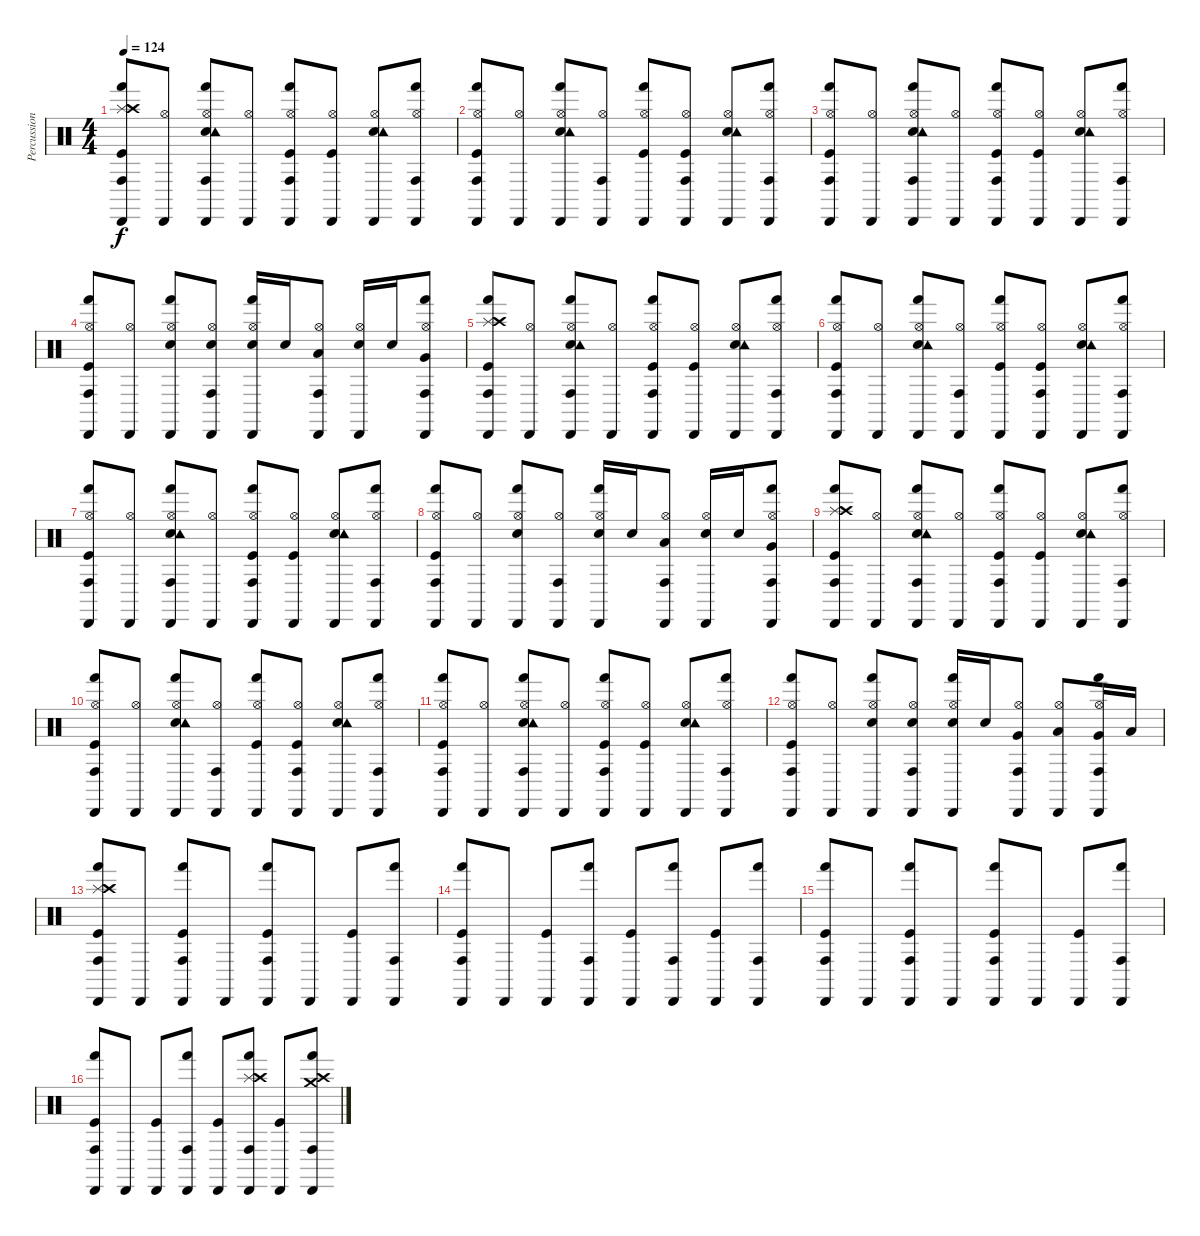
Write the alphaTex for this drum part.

\track ("Percussion" "Percussion") {instrument percussion}
\staff {score}
\articulation defaults
\ts (4 4)
\tempo 124
\clef neutral
\ks c
("Cabasa (hit)" "Kick (hit)" "Hand (hit)" "Conga high (hit)" "Splash (hit)" "Crash high (hit)").8{dy f} ("Cabasa (hit)" "Hi-Hat (open)").8 ("Cabasa (hit)" "Electric Snare (hit)" "Hand (hit)" "Conga high (hit)" "Tambourine (hit)" "Hi-Hat (open)").8 ("Cabasa (hit)" "Hi-Hat (open)").8 ("Cabasa (hit)" "Kick (hit)" "Hand (hit)" "Conga high (hit)" "Hi-Hat (open)").8 ("Cabasa (hit)" "Kick (hit)" "Hi-Hat (open)").8 ("Cabasa (hit)" "Electric Snare (hit)" "Tambourine (hit)" "Hi-Hat (open)").8 ("Cabasa (hit)" "Hand (hit)" "Conga high (hit)" "Hi-Hat (open)").8 |
("Cabasa (hit)" "Kick (hit)" "Hand (hit)" "Conga high (hit)" "Hi-Hat (open)").8 ("Cabasa (hit)" "Hi-Hat (open)").8 ("Cabasa (hit)" "Electric Snare (hit)" "Hand (hit)" "Tambourine (hit)" "Hi-Hat (open)").8 ("Cabasa (hit)" "Conga high (hit)" "Hi-Hat (open)").8 ("Cabasa (hit)" "Kick (hit)" "Hand (hit)" "Hi-Hat (open)").8 ("Cabasa (hit)" "Kick (hit)" "Conga high (hit)" "Hi-Hat (open)").8 ("Cabasa (hit)" "Electric Snare (hit)" "Tambourine (hit)" "Hi-Hat (open)").8 ("Cabasa (hit)" "Hand (hit)" "Conga high (hit)" "Hi-Hat (open)").8 |
("Cabasa (hit)" "Kick (hit)" "Hand (hit)" "Conga high (hit)" "Hi-Hat (open)").8 ("Cabasa (hit)" "Hi-Hat (open)").8 ("Cabasa (hit)" "Electric Snare (hit)" "Hand (hit)" "Conga high (hit)" "Tambourine (hit)" "Hi-Hat (open)").8 ("Cabasa (hit)" "Hi-Hat (open)").8 ("Cabasa (hit)" "Kick (hit)" "Hand (hit)" "Conga high (hit)" "Hi-Hat (open)").8 ("Cabasa (hit)" "Kick (hit)" "Hi-Hat (open)").8 ("Cabasa (hit)" "Electric Snare (hit)" "Tambourine (hit)" "Hi-Hat (open)").8 ("Cabasa (hit)" "Hand (hit)" "Conga high (hit)" "Hi-Hat (open)").8 |
("Cabasa (hit)" "Kick (hit)" "Hand (hit)" "Conga high (hit)" "Hi-Hat (open)").8 ("Cabasa (hit)" "Hi-Hat (open)").8 ("Cabasa (hit)" "Electric Snare (hit)" "Hand (hit)" "Hi-Hat (open)").8 ("Cabasa (hit)" "Electric Snare (hit)" "Conga high (hit)" "Hi-Hat (open)").8 ("Cabasa (hit)" "Snare (hit) 2" "Hand (hit)" "Hi-Hat (open)").16 "Snare (hit) 2".16 ("Cabasa (hit)" "Low Floor Tom (hit)" "Conga high (hit)" "Hi-Hat (open)").8 ("Cabasa (hit)" "Snare (hit) 2" "Hi-Hat (open)").16 "Snare (hit) 2".16 ("Cabasa (hit)" "Very Low Tom (hit)" "Hand (hit)" "Conga high (hit)" "Hi-Hat (open)").8 |
("Cabasa (hit)" "Kick (hit)" "Hand (hit)" "Conga high (hit)" "Splash (hit)" "Crash high (hit)").8 ("Cabasa (hit)" "Hi-Hat (open)").8 ("Cabasa (hit)" "Electric Snare (hit)" "Hand (hit)" "Conga high (hit)" "Tambourine (hit)" "Hi-Hat (open)").8 ("Cabasa (hit)" "Hi-Hat (open)").8 ("Cabasa (hit)" "Kick (hit)" "Hand (hit)" "Conga high (hit)" "Hi-Hat (open)").8 ("Cabasa (hit)" "Kick (hit)" "Hi-Hat (open)").8 ("Cabasa (hit)" "Electric Snare (hit)" "Tambourine (hit)" "Hi-Hat (open)").8 ("Cabasa (hit)" "Hand (hit)" "Conga high (hit)" "Hi-Hat (open)").8 |
("Cabasa (hit)" "Kick (hit)" "Hand (hit)" "Conga high (hit)" "Hi-Hat (open)").8 ("Cabasa (hit)" "Hi-Hat (open)").8 ("Cabasa (hit)" "Electric Snare (hit)" "Hand (hit)" "Tambourine (hit)" "Hi-Hat (open)").8 ("Cabasa (hit)" "Conga high (hit)" "Hi-Hat (open)").8 ("Cabasa (hit)" "Kick (hit)" "Hand (hit)" "Hi-Hat (open)").8 ("Cabasa (hit)" "Kick (hit)" "Conga high (hit)" "Hi-Hat (open)").8 ("Cabasa (hit)" "Electric Snare (hit)" "Tambourine (hit)" "Hi-Hat (open)").8 ("Cabasa (hit)" "Hand (hit)" "Conga high (hit)" "Hi-Hat (open)").8 |
("Cabasa (hit)" "Kick (hit)" "Hand (hit)" "Conga high (hit)" "Hi-Hat (open)").8 ("Cabasa (hit)" "Hi-Hat (open)").8 ("Cabasa (hit)" "Electric Snare (hit)" "Hand (hit)" "Conga high (hit)" "Tambourine (hit)" "Hi-Hat (open)").8 ("Cabasa (hit)" "Hi-Hat (open)").8 ("Cabasa (hit)" "Kick (hit)" "Hand (hit)" "Conga high (hit)" "Hi-Hat (open)").8 ("Cabasa (hit)" "Kick (hit)" "Hi-Hat (open)").8 ("Cabasa (hit)" "Electric Snare (hit)" "Tambourine (hit)" "Hi-Hat (open)").8 ("Cabasa (hit)" "Hand (hit)" "Conga high (hit)" "Hi-Hat (open)").8 |
("Cabasa (hit)" "Kick (hit)" "Hand (hit)" "Conga high (hit)" "Hi-Hat (open)").8 ("Cabasa (hit)" "Hi-Hat (open)").8 ("Cabasa (hit)" "Electric Snare (hit)" "Hand (hit)" "Hi-Hat (open)").8 ("Cabasa (hit)" "Conga high (hit)" "Hi-Hat (open)").8 ("Cabasa (hit)" "Snare (hit) 2" "Hand (hit)" "Hi-Hat (open)").16 "Snare (hit) 2".16 ("Cabasa (hit)" "Low Floor Tom (hit)" "Conga high (hit)" "Hi-Hat (open)").8 ("Cabasa (hit)" "Snare (hit) 2" "Hi-Hat (open)").16 "Snare (hit) 2".16 ("Cabasa (hit)" "Very Low Tom (hit)" "Hand (hit)" "Conga high (hit)" "Hi-Hat (open)").8 |
("Cabasa (hit)" "Kick (hit)" "Hand (hit)" "Conga high (hit)" "Splash (hit)" "Crash high (hit)").8 ("Cabasa (hit)" "Hi-Hat (open)").8 ("Cabasa (hit)" "Electric Snare (hit)" "Hand (hit)" "Conga high (hit)" "Tambourine (hit)" "Hi-Hat (open)").8 ("Cabasa (hit)" "Hi-Hat (open)").8 ("Cabasa (hit)" "Kick (hit)" "Hand (hit)" "Conga high (hit)" "Hi-Hat (open)").8 ("Cabasa (hit)" "Kick (hit)" "Hi-Hat (open)").8 ("Cabasa (hit)" "Electric Snare (hit)" "Tambourine (hit)" "Hi-Hat (open)").8 ("Cabasa (hit)" "Hand (hit)" "Conga high (hit)" "Hi-Hat (open)").8 |
("Cabasa (hit)" "Kick (hit)" "Hand (hit)" "Conga high (hit)" "Hi-Hat (open)").8 ("Cabasa (hit)" "Hi-Hat (open)").8 ("Cabasa (hit)" "Electric Snare (hit)" "Hand (hit)" "Tambourine (hit)" "Hi-Hat (open)").8 ("Cabasa (hit)" "Conga high (hit)" "Hi-Hat (open)").8 ("Cabasa (hit)" "Kick (hit)" "Hand (hit)" "Hi-Hat (open)").8 ("Cabasa (hit)" "Kick (hit)" "Conga high (hit)" "Hi-Hat (open)").8 ("Cabasa (hit)" "Electric Snare (hit)" "Tambourine (hit)" "Hi-Hat (open)").8 ("Cabasa (hit)" "Hand (hit)" "Conga high (hit)" "Hi-Hat (open)").8 |
("Cabasa (hit)" "Kick (hit)" "Hand (hit)" "Conga high (hit)" "Hi-Hat (open)").8 ("Cabasa (hit)" "Hi-Hat (open)").8 ("Cabasa (hit)" "Electric Snare (hit)" "Hand (hit)" "Conga high (hit)" "Tambourine (hit)" "Hi-Hat (open)").8 ("Cabasa (hit)" "Hi-Hat (open)").8 ("Cabasa (hit)" "Kick (hit)" "Hand (hit)" "Conga high (hit)" "Hi-Hat (open)").8 ("Cabasa (hit)" "Kick (hit)" "Hi-Hat (open)").8 ("Cabasa (hit)" "Electric Snare (hit)" "Tambourine (hit)" "Hi-Hat (open)").8 ("Cabasa (hit)" "Hand (hit)" "Conga high (hit)" "Hi-Hat (open)").8 |
("Cabasa (hit)" "Kick (hit)" "Hand (hit)" "Conga high (hit)" "Hi-Hat (open)").8 ("Cabasa (hit)" "Hi-Hat (open)").8 ("Cabasa (hit)" "Electric Snare (hit)" "Hand (hit)" "Hi-Hat (open)").8 ("Cabasa (hit)" "Electric Snare (hit)" "Conga high (hit)" "Hi-Hat (open)").8 ("Cabasa (hit)" "Snare (hit) 2" "Hand (hit)" "Hi-Hat (open)").16 "Snare (hit) 2".16 ("Cabasa (hit)" "Very Low Tom (hit)" "Conga high (hit)" "Hi-Hat (open)").8 ("Cabasa (hit)" "Low Floor Tom (hit)" "Hi-Hat (open)").8 ("Cabasa (hit)" "Very Low Tom (hit)" "Hand (hit)" "Conga high (hit)" "Hi-Hat (open)").16 "Low Tom (hit)".16 |
("Cabasa (hit)" "Kick (hit)" "Hand (hit)" "Conga high (hit)" "Splash (hit)" "Crash high (hit)").8 "Cabasa (hit)".8 ("Cabasa (hit)" "Kick (hit)" "Hand (hit)" "Conga high (hit)").8 "Cabasa (hit)".8 ("Cabasa (hit)" "Kick (hit)" "Hand (hit)" "Conga high (hit)").8 "Cabasa (hit)".8 ("Cabasa (hit)" "Kick (hit)").8 ("Cabasa (hit)" "Hand (hit)" "Conga high (hit)").8 |
("Cabasa (hit)" "Kick (hit)" "Hand (hit)" "Conga high (hit)").8 "Cabasa (hit)".8 ("Cabasa (hit)" "Kick (hit)").8 ("Cabasa (hit)" "Hand (hit)" "Conga high (hit)").8 ("Cabasa (hit)" "Kick (hit)").8 ("Cabasa (hit)" "Hand (hit)" "Conga high (hit)").8 ("Cabasa (hit)" "Kick (hit)").8 ("Cabasa (hit)" "Hand (hit)" "Conga high (hit)").8 |
("Cabasa (hit)" "Kick (hit)" "Hand (hit)" "Conga high (hit)").8 "Cabasa (hit)".8 ("Cabasa (hit)" "Kick (hit)" "Hand (hit)" "Conga high (hit)").8 "Cabasa (hit)".8 ("Cabasa (hit)" "Kick (hit)" "Hand (hit)" "Conga high (hit)").8 "Cabasa (hit)".8 ("Cabasa (hit)" "Kick (hit)").8 ("Cabasa (hit)" "Hand (hit)" "Conga high (hit)").8 |
("Cabasa (hit)" "Kick (hit)" "Hand (hit)" "Conga high (hit)").8 "Cabasa (hit)".8 ("Cabasa (hit)" "Kick (hit)").8 ("Cabasa (hit)" "Hand (hit)" "Conga high (hit)").8 ("Cabasa (hit)" "Kick (hit)").8 ("Cabasa (hit)" "Hand (hit)" "Conga high (hit)" "Splash (hit)" "Crash high (hit)").8 ("Cabasa (hit)" "Kick (hit)").8 ("Cabasa (hit)" "Hand (hit)" "Conga high (hit)" "Crash medium (hit)" "Crash high (hit)").8
